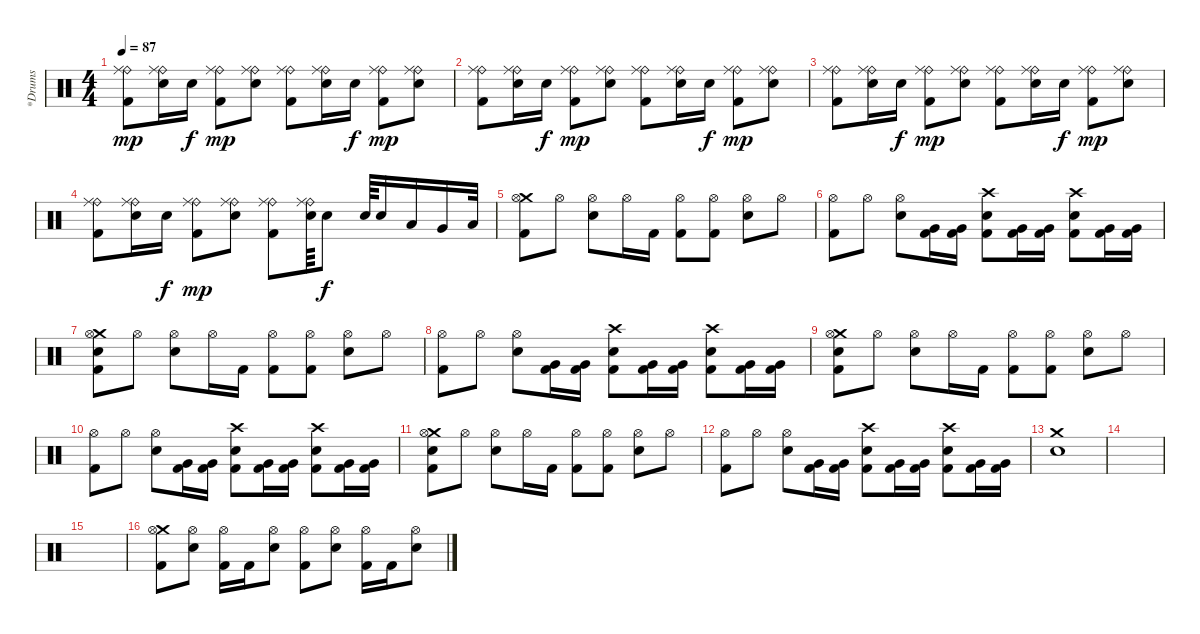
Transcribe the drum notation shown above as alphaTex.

\track ("*Drums" "*Drums") {instrument percussion}
\staff {score}
\articulation defaults
\ts (4 4)
\tempo 87
\clef neutral
\ks c
("Ride (bell)" "Kick (hit) 2" "Ride (middle)").8{dy mp} ("Ride (bell)" "Electric Snare (hit)" "Ride (middle)").16 "Electric Snare (hit)".16{dy f} ("Ride (bell)" "Kick (hit) 2" "Ride (middle)").8{dy mp} ("Ride (bell)" "Electric Snare (hit)" "Ride (middle)").8 ("Ride (bell)" "Kick (hit) 2" "Ride (middle)").8 ("Ride (bell)" "Electric Snare (hit)" "Ride (middle)").16 "Electric Snare (hit)".16{dy f} ("Ride (bell)" "Kick (hit) 2" "Ride (middle)").8{dy mp} ("Ride (bell)" "Electric Snare (hit)" "Ride (middle)").8 |
("Ride (bell)" "Kick (hit) 2" "Ride (middle)").8 ("Ride (bell)" "Electric Snare (hit)" "Ride (middle)").16 "Electric Snare (hit)".16{dy f} ("Ride (bell)" "Kick (hit) 2" "Ride (middle)").8{dy mp} ("Ride (bell)" "Electric Snare (hit)" "Ride (middle)").8 ("Ride (bell)" "Kick (hit) 2" "Ride (middle)").8 ("Ride (bell)" "Electric Snare (hit)" "Ride (middle)").16 "Electric Snare (hit)".16{dy f} ("Ride (bell)" "Kick (hit) 2" "Ride (middle)").8{dy mp} ("Ride (bell)" "Electric Snare (hit)" "Ride (middle)").8 |
("Ride (bell)" "Kick (hit) 2" "Ride (middle)").8 ("Ride (bell)" "Electric Snare (hit)" "Ride (middle)").16 "Electric Snare (hit)".16{dy f} ("Ride (bell)" "Kick (hit) 2" "Ride (middle)").8{dy mp} ("Ride (bell)" "Electric Snare (hit)" "Ride (middle)").8 ("Ride (bell)" "Kick (hit) 2" "Ride (middle)").8 ("Ride (bell)" "Electric Snare (hit)" "Ride (middle)").16 "Electric Snare (hit)".16{dy f} ("Ride (bell)" "Kick (hit) 2" "Ride (middle)").8{dy mp} ("Ride (bell)" "Electric Snare (hit)" "Ride (middle)").8 |
("Ride (bell)" "Kick (hit) 2" "Ride (middle)").8 ("Ride (bell)" "Electric Snare (hit)" "Ride (middle)").16 "Electric Snare (hit)".16{dy f} ("Ride (bell)" "Kick (hit) 2" "Ride (middle)").8{dy mp} ("Ride (bell)" "Electric Snare (hit)" "Ride (middle)").8 ("Ride (bell)" "Kick (hit) 2" "Ride (middle)").8 ("Ride (bell)" "Electric Snare (hit)" "Ride (middle)").64 "Electric Snare (hit)".8{dy f} "Electric Snare (hit)".64 "Electric Snare (hit)".16 "Low Tom (hit)".16 "Very Low Tom (hit)".16 "Low Floor Tom (hit)".32 |
("Crash medium (hit)" "Hi-Hat (open)" "Kick (hit) 2").8 "Hi-Hat (open)".8 ("Hi-Hat (open)" "Electric Snare (hit)").8 "Hi-Hat (open)".16 "Kick (hit) 2".16 ("Hi-Hat (open)" "Kick (hit) 2").8 ("Hi-Hat (open)" "Kick (hit) 2").8 ("Hi-Hat (open)" "Electric Snare (hit)").8 "Hi-Hat (open)".8 |
("Hi-Hat (open)" "Kick (hit) 2").8 "Hi-Hat (open)".8 ("Hi-Hat (open)" "Electric Snare (hit)").8 ("Very Low Tom (hit)" "Kick (hit) 2").16 ("Very Low Tom (hit)" "Kick (hit) 2").16 ("Crash high (hit)" "Electric Snare (hit)" "Kick (hit) 2").8 ("Very Low Tom (hit)" "Kick (hit) 2").16 ("Very Low Tom (hit)" "Kick (hit) 2").16 ("Crash high (hit)" "Electric Snare (hit)" "Kick (hit) 2").8 ("Very Low Tom (hit)" "Kick (hit) 2").16 ("Very Low Tom (hit)" "Kick (hit) 2").16 |
("Crash medium (hit)" "Hi-Hat (open)" "Electric Snare (hit)" "Kick (hit) 2").8 "Hi-Hat (open)".8 ("Hi-Hat (open)" "Electric Snare (hit)").8 "Hi-Hat (open)".16 "Kick (hit) 2".16 ("Hi-Hat (open)" "Kick (hit) 2").8 ("Hi-Hat (open)" "Kick (hit) 2").8 ("Hi-Hat (open)" "Electric Snare (hit)").8 "Hi-Hat (open)".8 |
("Hi-Hat (open)" "Kick (hit) 2").8 "Hi-Hat (open)".8 ("Hi-Hat (open)" "Electric Snare (hit)").8 ("Very Low Tom (hit)" "Kick (hit) 2").16 ("Very Low Tom (hit)" "Kick (hit) 2").16 ("Crash high (hit)" "Electric Snare (hit)" "Kick (hit) 2").8 ("Very Low Tom (hit)" "Kick (hit) 2").16 ("Very Low Tom (hit)" "Kick (hit) 2").16 ("Crash high (hit)" "Electric Snare (hit)" "Kick (hit) 2").8 ("Very Low Tom (hit)" "Kick (hit) 2").16 ("Very Low Tom (hit)" "Kick (hit) 2").16 |
("Crash medium (hit)" "Hi-Hat (open)" "Electric Snare (hit)" "Kick (hit) 2").8 "Hi-Hat (open)".8 ("Hi-Hat (open)" "Electric Snare (hit)").8 "Hi-Hat (open)".16 "Kick (hit) 2".16 ("Hi-Hat (open)" "Kick (hit) 2").8 ("Hi-Hat (open)" "Kick (hit) 2").8 ("Hi-Hat (open)" "Electric Snare (hit)").8 "Hi-Hat (open)".8 |
("Hi-Hat (open)" "Kick (hit) 2").8 "Hi-Hat (open)".8 ("Hi-Hat (open)" "Electric Snare (hit)").8 ("Very Low Tom (hit)" "Kick (hit) 2").16 ("Very Low Tom (hit)" "Kick (hit) 2").16 ("Crash high (hit)" "Electric Snare (hit)" "Kick (hit) 2").8 ("Very Low Tom (hit)" "Kick (hit) 2").16 ("Very Low Tom (hit)" "Kick (hit) 2").16 ("Crash high (hit)" "Electric Snare (hit)" "Kick (hit) 2").8 ("Very Low Tom (hit)" "Kick (hit) 2").16 ("Very Low Tom (hit)" "Kick (hit) 2").16 |
("Crash medium (hit)" "Hi-Hat (open)" "Electric Snare (hit)" "Kick (hit) 2").8 "Hi-Hat (open)".8 ("Hi-Hat (open)" "Electric Snare (hit)").8 "Hi-Hat (open)".16 "Kick (hit) 2".16 ("Hi-Hat (open)" "Kick (hit) 2").8 ("Hi-Hat (open)" "Kick (hit) 2").8 ("Hi-Hat (open)" "Electric Snare (hit)").8 "Hi-Hat (open)".8 |
("Hi-Hat (open)" "Kick (hit) 2").8 "Hi-Hat (open)".8 ("Hi-Hat (open)" "Electric Snare (hit)").8 ("Very Low Tom (hit)" "Kick (hit) 2").16 ("Very Low Tom (hit)" "Kick (hit) 2").16 ("Crash high (hit)" "Electric Snare (hit)" "Kick (hit) 2").8 ("Very Low Tom (hit)" "Kick (hit) 2").16 ("Very Low Tom (hit)" "Kick (hit) 2").16 ("Crash high (hit)" "Electric Snare (hit)" "Kick (hit) 2").8 ("Very Low Tom (hit)" "Kick (hit) 2").16 ("Very Low Tom (hit)" "Kick (hit) 2").16 |
("Crash medium (hit)" "Electric Snare (hit)").1 |
|
|
("Crash medium (hit)" "Hi-Hat (open)" "Kick (hit) 2").8 ("Hi-Hat (open)" "Electric Snare (hit)").8 ("Hi-Hat (open)" "Kick (hit) 2").16 "Kick (hit) 2".16 ("Hi-Hat (open)" "Electric Snare (hit)").8 ("Hi-Hat (open)" "Kick (hit) 2").8 ("Hi-Hat (open)" "Electric Snare (hit)").8 ("Hi-Hat (open)" "Kick (hit) 2").16 "Kick (hit) 2".16 ("Hi-Hat (open)" "Electric Snare (hit)").8
